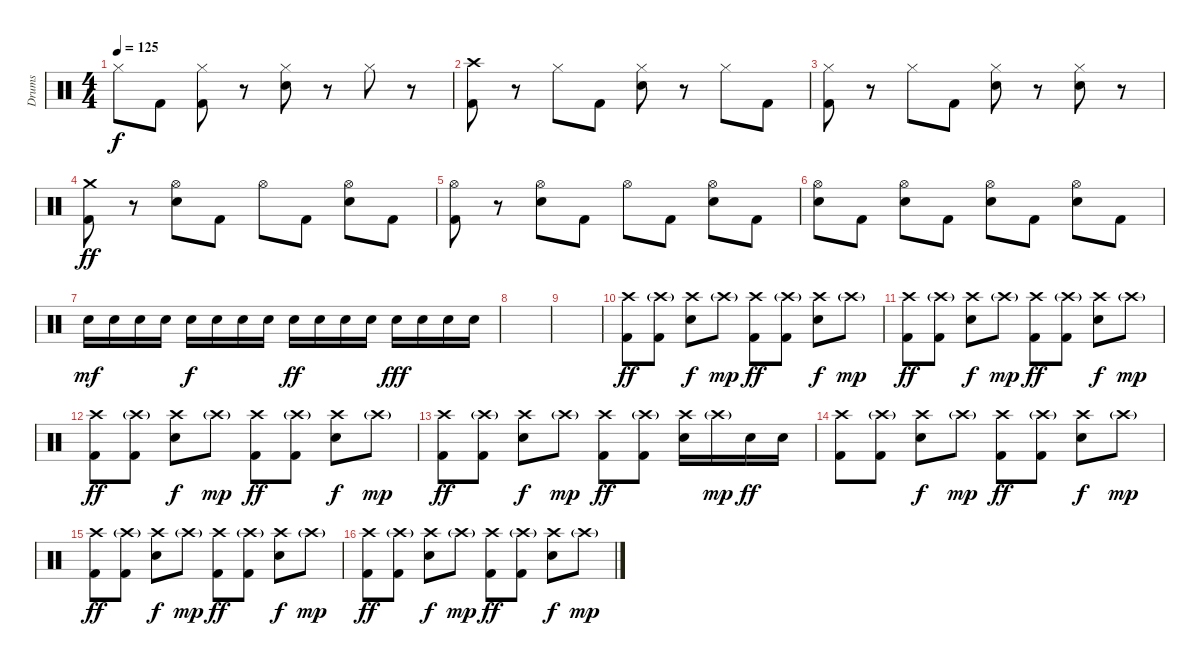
\track ("Drums" "Drums") {instrument percussion}
\staff {score}
\articulation defaults
\ts (4 4)
\tempo 125
\clef neutral
\ks c "Hi-Hat (closed)".8{dy f} "Kick (hit) 2".8
("Hi-Hat (closed)" "Kick (hit) 2").8 r.8 ("Hi-Hat (closed)" "Electric Snare (hit)").8 r.8 "Hi-Hat (closed)".8 r.8 |
("Crash high (hit)" "Kick (hit) 2").8 r.8 "Hi-Hat (closed)".8 "Kick (hit) 2".8 ("Hi-Hat (closed)" "Electric Snare (hit)").8 r.8 "Hi-Hat (closed)".8 "Kick (hit) 2".8 |
("Hi-Hat (closed)" "Kick (hit) 2").8 r.8 "Hi-Hat (closed)".8 "Kick (hit) 2".8 ("Hi-Hat (closed)" "Electric Snare (hit)").8 r.8 ("Hi-Hat (closed)" "Electric Snare (hit)").8 r.8 |
("Crash medium (hit)" "Kick (hit) 2").8{dy ff} r.8 ("Hi-Hat (open)" "Electric Snare (hit)").8 "Kick (hit) 2".8 "Hi-Hat (open)".8 "Kick (hit) 2".8 ("Hi-Hat (open)" "Electric Snare (hit)").8 "Kick (hit) 2".8 |
("Hi-Hat (open)" "Kick (hit) 2").8 r.8 ("Hi-Hat (open)" "Electric Snare (hit)").8 "Kick (hit) 2".8 "Hi-Hat (open)".8 "Kick (hit) 2".8 ("Hi-Hat (open)" "Electric Snare (hit)").8 "Kick (hit) 2".8 |
("Hi-Hat (open)" "Electric Snare (hit)").8 "Kick (hit) 2".8 ("Hi-Hat (open)" "Electric Snare (hit)").8 "Kick (hit) 2".8 ("Hi-Hat (open)" "Electric Snare (hit)").8 "Kick (hit) 2".8 ("Hi-Hat (open)" "Electric Snare (hit)").8 "Kick (hit) 2".8 |
"Electric Snare (hit)".16{dy mf} "Electric Snare (hit)".16 "Electric Snare (hit)".16 "Electric Snare (hit)".16 "Electric Snare (hit)".16{dy f} "Electric Snare (hit)".16 "Electric Snare (hit)".16 "Electric Snare (hit)".16 "Electric Snare (hit)".16{dy ff} "Electric Snare (hit)".16 "Electric Snare (hit)".16 "Electric Snare (hit)".16 "Electric Snare (hit)".16{dy fff} "Electric Snare (hit)".16 "Electric Snare (hit)".16 "Electric Snare (hit)".16 |
|
|
("Crash high (hit)" "Kick (hit) 2").8{dy ff} ("Crash high (hit)"{g} "Kick (hit) 2").8 ("Crash high (hit)" "Electric Snare (hit)").8{dy f} "Crash high (hit)"{g}.8{dy mp} ("Crash high (hit)" "Kick (hit) 2").8{dy ff} ("Crash high (hit)"{g} "Kick (hit) 2").8 ("Crash high (hit)" "Electric Snare (hit)").8{dy f} "Crash high (hit)"{g}.8{dy mp} |
("Crash high (hit)" "Kick (hit) 2").8{dy ff} ("Crash high (hit)"{g} "Kick (hit) 2").8 ("Crash high (hit)" "Electric Snare (hit)").8{dy f} "Crash high (hit)"{g}.8{dy mp} ("Crash high (hit)" "Kick (hit) 2").8{dy ff} ("Crash high (hit)"{g} "Kick (hit) 2").8 ("Crash high (hit)" "Electric Snare (hit)").8{dy f} "Crash high (hit)"{g}.8{dy mp} |
("Crash high (hit)" "Kick (hit) 2").8{dy ff} ("Crash high (hit)"{g} "Kick (hit) 2").8 ("Crash high (hit)" "Electric Snare (hit)").8{dy f} "Crash high (hit)"{g}.8{dy mp} ("Crash high (hit)" "Kick (hit) 2").8{dy ff} ("Crash high (hit)"{g} "Kick (hit) 2").8 ("Crash high (hit)" "Electric Snare (hit)").8{dy f} "Crash high (hit)"{g}.8{dy mp} |
("Crash high (hit)" "Kick (hit) 2").8{dy ff} ("Crash high (hit)"{g} "Kick (hit) 2").8 ("Crash high (hit)" "Electric Snare (hit)").8{dy f} "Crash high (hit)"{g}.8{dy mp} ("Crash high (hit)" "Kick (hit) 2").8{dy ff} ("Crash high (hit)"{g} "Kick (hit) 2").8 ("Crash high (hit)" "Electric Snare (hit)").16 "Crash high (hit)"{g}.16{dy mp} "Electric Snare (hit)".16{dy ff} "Electric Snare (hit)".16 |
("Crash high (hit)" "Kick (hit) 2").8 ("Crash high (hit)"{g} "Kick (hit) 2").8 ("Crash high (hit)" "Electric Snare (hit)").8{dy f} "Crash high (hit)"{g}.8{dy mp} ("Crash high (hit)" "Kick (hit) 2").8{dy ff} ("Crash high (hit)"{g} "Kick (hit) 2").8 ("Crash high (hit)" "Electric Snare (hit)").8{dy f} "Crash high (hit)"{g}.8{dy mp} |
("Crash high (hit)" "Kick (hit) 2").8{dy ff} ("Crash high (hit)"{g} "Kick (hit) 2").8 ("Crash high (hit)" "Electric Snare (hit)").8{dy f} "Crash high (hit)"{g}.8{dy mp} ("Crash high (hit)" "Kick (hit) 2").8{dy ff} ("Crash high (hit)"{g} "Kick (hit) 2").8 ("Crash high (hit)" "Electric Snare (hit)").8{dy f} "Crash high (hit)"{g}.8{dy mp} |
("Crash high (hit)" "Kick (hit) 2").8{dy ff} ("Crash high (hit)"{g} "Kick (hit) 2").8 ("Crash high (hit)" "Electric Snare (hit)").8{dy f} "Crash high (hit)"{g}.8{dy mp} ("Crash high (hit)" "Kick (hit) 2").8{dy ff} ("Crash high (hit)"{g} "Kick (hit) 2").8 ("Crash high (hit)" "Electric Snare (hit)").8{dy f} "Crash high (hit)"{g}.8{dy mp}
